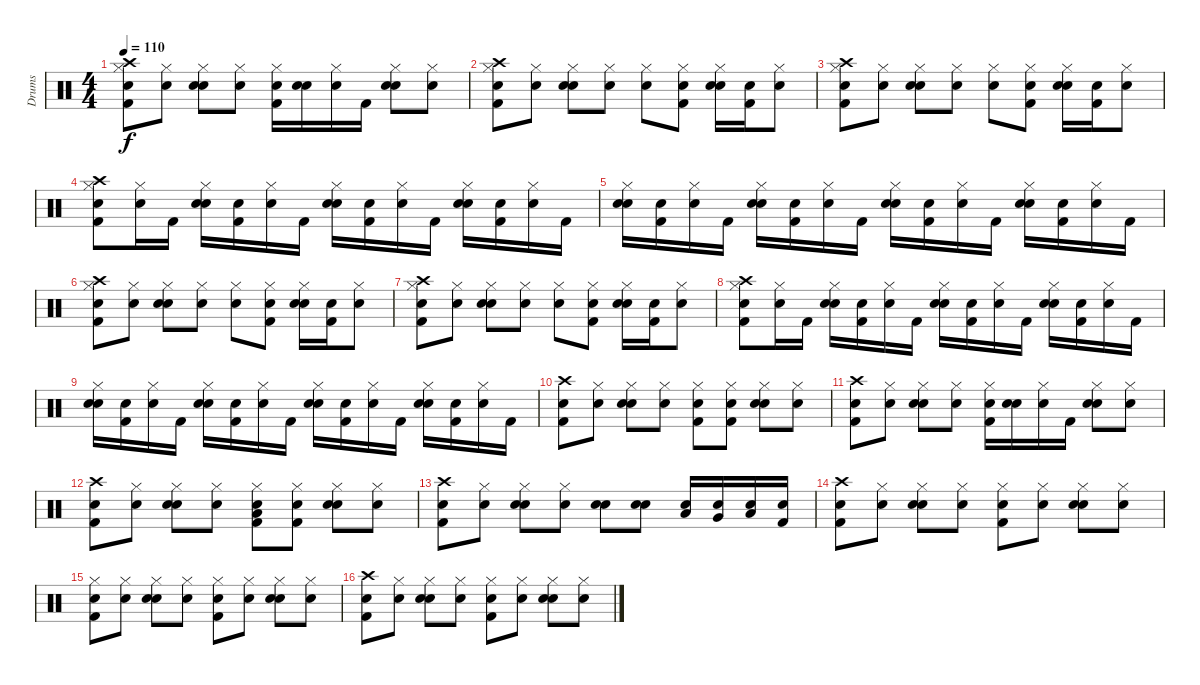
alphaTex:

\track ("Drums" "Drums") {instrument percussion}
\staff {score}
\articulation defaults
\ts (4 4)
\tempo 110
\clef neutral
\ks c
("Snare (hit)" "Kick (hit) 2" "Hi-Hat (closed)" "Crash high (hit)").8{dy f} ("Snare (hit)" "Hi-Hat (closed)").8 ("Snare (hit)" "Snare (hit) 2" "Hi-Hat (closed)").8 ("Snare (hit)" "Hi-Hat (closed)").8 ("Snare (hit)" "Kick (hit) 2" "Hi-Hat (closed)").16 ("Snare (hit)" "Snare (hit) 2").16 ("Snare (hit)" "Hi-Hat (closed)").16 "Kick (hit) 2".16 ("Snare (hit)" "Snare (hit) 2" "Hi-Hat (closed)").8 ("Snare (hit)" "Hi-Hat (closed)").8 |
("Snare (hit)" "Kick (hit) 2" "Hi-Hat (closed)" "Crash high (hit)").8 ("Snare (hit)" "Hi-Hat (closed)").8 ("Snare (hit)" "Snare (hit) 2" "Hi-Hat (closed)").8 ("Snare (hit)" "Hi-Hat (closed)").8 ("Snare (hit)" "Hi-Hat (closed)").8 ("Snare (hit)" "Kick (hit) 2" "Hi-Hat (closed)").8 ("Snare (hit)" "Snare (hit) 2" "Hi-Hat (closed)").16 ("Snare (hit)" "Kick (hit) 2").16 ("Snare (hit)" "Hi-Hat (closed)").8 |
("Snare (hit)" "Kick (hit) 2" "Hi-Hat (closed)" "Crash high (hit)").8 ("Snare (hit)" "Hi-Hat (closed)").8 ("Snare (hit)" "Snare (hit) 2" "Hi-Hat (closed)").8 ("Snare (hit)" "Hi-Hat (closed)").8 ("Snare (hit)" "Hi-Hat (closed)").8 ("Snare (hit)" "Kick (hit) 2" "Hi-Hat (closed)").8 ("Snare (hit)" "Snare (hit) 2" "Hi-Hat (closed)").16 ("Snare (hit)" "Kick (hit) 2").16 ("Snare (hit)" "Hi-Hat (closed)").8 |
("Snare (hit)" "Kick (hit) 2" "Hi-Hat (closed)" "Crash high (hit)").8 ("Snare (hit)" "Hi-Hat (closed)").16 "Kick (hit) 2".16 ("Snare (hit)" "Snare (hit) 2" "Hi-Hat (closed)").16 ("Snare (hit)" "Kick (hit) 2").16 ("Snare (hit)" "Hi-Hat (closed)").16 "Kick (hit) 2".16 ("Snare (hit)" "Snare (hit) 2" "Hi-Hat (closed)").16 ("Snare (hit)" "Kick (hit) 2").16 ("Snare (hit)" "Hi-Hat (closed)").16 "Kick (hit) 2".16 ("Snare (hit)" "Snare (hit) 2" "Hi-Hat (closed)").16 ("Snare (hit)" "Kick (hit) 2").16 ("Snare (hit)" "Hi-Hat (closed)").16 "Kick (hit) 2".16 |
("Snare (hit)" "Snare (hit) 2" "Hi-Hat (closed)").16 ("Snare (hit)" "Kick (hit) 2").16 ("Snare (hit)" "Hi-Hat (closed)").16 "Kick (hit) 2".16 ("Snare (hit)" "Snare (hit) 2" "Hi-Hat (closed)").16 ("Snare (hit)" "Kick (hit) 2").16 ("Snare (hit)" "Hi-Hat (closed)").16 "Kick (hit) 2".16 ("Snare (hit)" "Snare (hit) 2" "Hi-Hat (closed)").16 ("Snare (hit)" "Kick (hit) 2").16 ("Snare (hit)" "Hi-Hat (closed)").16 "Kick (hit) 2".16 ("Snare (hit)" "Snare (hit) 2" "Hi-Hat (closed)").16 ("Snare (hit)" "Kick (hit) 2").16 ("Snare (hit)" "Hi-Hat (closed)").16 "Kick (hit) 2".16 |
("Snare (hit)" "Kick (hit) 2" "Hi-Hat (closed)" "Crash high (hit)").8 ("Snare (hit)" "Hi-Hat (closed)").8 ("Snare (hit)" "Snare (hit) 2" "Hi-Hat (closed)").8 ("Snare (hit)" "Hi-Hat (closed)").8 ("Snare (hit)" "Hi-Hat (closed)").8 ("Snare (hit)" "Kick (hit) 2" "Hi-Hat (closed)").8 ("Snare (hit)" "Snare (hit) 2" "Hi-Hat (closed)").16 ("Snare (hit)" "Kick (hit) 2").16 ("Snare (hit)" "Hi-Hat (closed)").8 |
("Snare (hit)" "Kick (hit) 2" "Hi-Hat (closed)" "Crash high (hit)").8 ("Snare (hit)" "Hi-Hat (closed)").8 ("Snare (hit)" "Snare (hit) 2" "Hi-Hat (closed)").8 ("Snare (hit)" "Hi-Hat (closed)").8 ("Snare (hit)" "Hi-Hat (closed)").8 ("Snare (hit)" "Kick (hit) 2" "Hi-Hat (closed)").8 ("Snare (hit)" "Snare (hit) 2" "Hi-Hat (closed)").16 ("Snare (hit)" "Kick (hit) 2").16 ("Snare (hit)" "Hi-Hat (closed)").8 |
("Snare (hit)" "Kick (hit) 2" "Hi-Hat (closed)" "Crash high (hit)").8 ("Snare (hit)" "Hi-Hat (closed)").16 "Kick (hit) 2".16 ("Snare (hit)" "Snare (hit) 2" "Hi-Hat (closed)").16 ("Snare (hit)" "Kick (hit) 2").16 ("Snare (hit)" "Hi-Hat (closed)").16 "Kick (hit) 2".16 ("Snare (hit)" "Snare (hit) 2" "Hi-Hat (closed)").16 ("Snare (hit)" "Kick (hit) 2").16 ("Snare (hit)" "Hi-Hat (closed)").16 "Kick (hit) 2".16 ("Snare (hit)" "Snare (hit) 2" "Hi-Hat (closed)").16 ("Snare (hit)" "Kick (hit) 2").16 ("Snare (hit)" "Hi-Hat (closed)").16 "Kick (hit) 2".16 |
("Snare (hit)" "Snare (hit) 2" "Hi-Hat (closed)").16 ("Snare (hit)" "Kick (hit) 2").16 ("Snare (hit)" "Hi-Hat (closed)").16 "Kick (hit) 2".16 ("Snare (hit)" "Snare (hit) 2" "Hi-Hat (closed)").16 ("Snare (hit)" "Kick (hit) 2").16 ("Snare (hit)" "Hi-Hat (closed)").16 "Kick (hit) 2".16 ("Snare (hit)" "Snare (hit) 2" "Hi-Hat (closed)").16 ("Snare (hit)" "Kick (hit) 2").16 ("Snare (hit)" "Hi-Hat (closed)").16 "Kick (hit) 2".16 ("Snare (hit)" "Snare (hit) 2" "Hi-Hat (closed)").16 ("Snare (hit)" "Kick (hit) 2").16 ("Snare (hit)" "Hi-Hat (closed)").16 "Kick (hit) 2".16 |
("Snare (hit)" "Kick (hit) 2" "Crash high (hit)").8 ("Snare (hit)" "Hi-Hat (closed)").8 ("Snare (hit)" "Snare (hit) 2" "Hi-Hat (closed)").8 ("Snare (hit)" "Hi-Hat (closed)").8 ("Snare (hit)" "Kick (hit) 2" "Hi-Hat (closed)").8 ("Snare (hit)" "Kick (hit) 2" "Hi-Hat (closed)").8 ("Snare (hit)" "Snare (hit) 2" "Hi-Hat (closed)").8 ("Snare (hit)" "Hi-Hat (closed)").8 |
("Snare (hit)" "Kick (hit) 2" "Crash high (hit)").8 ("Snare (hit)" "Hi-Hat (closed)").8 ("Snare (hit)" "Snare (hit) 2" "Hi-Hat (closed)").8 ("Snare (hit)" "Hi-Hat (closed)").8 ("Snare (hit)" "Kick (hit) 2" "Hi-Hat (closed)").16 ("Snare (hit)" "Snare (hit) 2").16 ("Snare (hit)" "Hi-Hat (closed)").16 "Kick (hit) 2".16 ("Snare (hit)" "Snare (hit) 2" "Hi-Hat (closed)").8 ("Snare (hit)" "Hi-Hat (closed)").8 |
("Snare (hit)" "Kick (hit) 2" "Crash high (hit)").8 ("Snare (hit)" "Hi-Hat (closed)").8 ("Snare (hit)" "Snare (hit) 2" "Hi-Hat (closed)").8 ("Snare (hit)" "Hi-Hat (closed)").8 ("Snare (hit)" "Kick (hit) 2" "Hi-Hat (closed)" "Low Tom (hit)").8 ("Snare (hit)" "Kick (hit) 2" "Hi-Hat (closed)").8 ("Snare (hit)" "Snare (hit) 2" "Hi-Hat (closed)").8 ("Snare (hit)" "Hi-Hat (closed)").8 |
("Snare (hit)" "Kick (hit) 2" "Crash high (hit)").8 ("Snare (hit)" "Hi-Hat (closed)").8 ("Snare (hit)" "Snare (hit) 2" "Hi-Hat (closed)").8 ("Snare (hit)" "Hi-Hat (closed)").8 ("Snare (hit)" "Snare (hit) 2").8 ("Snare (hit)" "Snare (hit) 2").8 ("Snare (hit)" "Low Tom (hit)").16 ("Snare (hit)" "Very Low Tom (hit)").16 ("Snare (hit)" "Low Floor Tom (hit)").16 ("Snare (hit)" "Kick (hit) 2").16 |
("Snare (hit)" "Kick (hit) 2" "Crash high (hit)").8 ("Snare (hit)" "Hi-Hat (closed)").8 ("Snare (hit)" "Snare (hit) 2" "Hi-Hat (closed)").8 ("Snare (hit)" "Hi-Hat (closed)").8 ("Snare (hit)" "Kick (hit) 2" "Hi-Hat (closed)").8 ("Snare (hit)" "Hi-Hat (closed)").8 ("Snare (hit)" "Snare (hit) 2" "Hi-Hat (closed)").8 ("Snare (hit)" "Hi-Hat (closed)").8 |
("Snare (hit)" "Kick (hit) 2" "Hi-Hat (closed)").8 ("Snare (hit)" "Hi-Hat (closed)").8 ("Snare (hit)" "Snare (hit) 2" "Hi-Hat (closed)").8 ("Snare (hit)" "Hi-Hat (closed)").8 ("Snare (hit)" "Kick (hit) 2" "Hi-Hat (closed)").8 ("Snare (hit)" "Hi-Hat (closed)").8 ("Snare (hit)" "Snare (hit) 2" "Hi-Hat (closed)").8 ("Snare (hit)" "Hi-Hat (closed)").8 |
("Snare (hit)" "Kick (hit) 2" "Crash high (hit)").8 ("Snare (hit)" "Hi-Hat (closed)").8 ("Snare (hit)" "Snare (hit) 2" "Hi-Hat (closed)").8 ("Snare (hit)" "Hi-Hat (closed)").8 ("Snare (hit)" "Kick (hit) 2" "Hi-Hat (closed)").8 ("Snare (hit)" "Hi-Hat (closed)").8 ("Snare (hit)" "Snare (hit) 2" "Hi-Hat (closed)").8 ("Snare (hit)" "Hi-Hat (closed)").8
